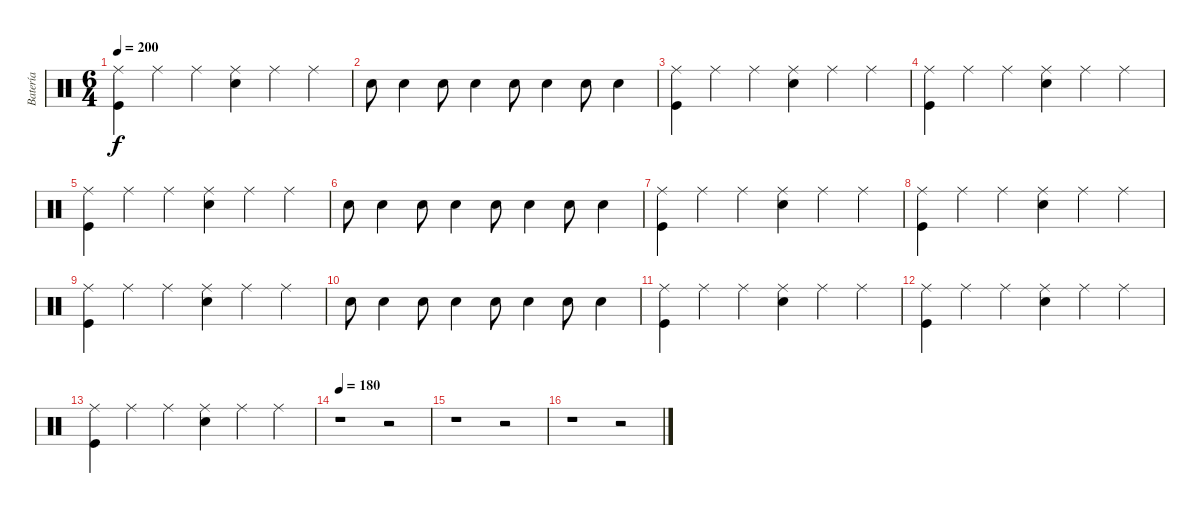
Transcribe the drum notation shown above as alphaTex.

\track ("Batería" "Batería") {instrument percussion}
\staff {score}
\articulation defaults
\ts (6 4)
\tempo 200
\clef neutral
\ks c
("Ride (middle)" "Kick (hit)").4{dy f} "Ride (middle)".4 "Ride (middle)".4 ("Ride (middle)" "Snare (hit) 2").4 "Ride (middle)".4 "Ride (middle)".4 |
"Snare (hit) 2".8 "Snare (hit) 2".4 "Snare (hit) 2".8 "Snare (hit) 2".4 "Snare (hit) 2".8 "Snare (hit) 2".4 "Snare (hit) 2".8 "Snare (hit) 2".4 |
("Ride (middle)" "Kick (hit)").4 "Ride (middle)".4 "Ride (middle)".4 ("Ride (middle)" "Snare (hit) 2").4 "Ride (middle)".4 "Ride (middle)".4 |
("Ride (middle)" "Kick (hit)").4 "Ride (middle)".4 "Ride (middle)".4 ("Ride (middle)" "Snare (hit) 2").4 "Ride (middle)".4 "Ride (middle)".4 |
("Ride (middle)" "Kick (hit)").4 "Ride (middle)".4 "Ride (middle)".4 ("Ride (middle)" "Snare (hit) 2").4 "Ride (middle)".4 "Ride (middle)".4 |
"Snare (hit) 2".8 "Snare (hit) 2".4 "Snare (hit) 2".8 "Snare (hit) 2".4 "Snare (hit) 2".8 "Snare (hit) 2".4 "Snare (hit) 2".8 "Snare (hit) 2".4 |
("Ride (middle)" "Kick (hit)").4 "Ride (middle)".4 "Ride (middle)".4 ("Ride (middle)" "Snare (hit) 2").4 "Ride (middle)".4 "Ride (middle)".4 |
("Ride (middle)" "Kick (hit)").4 "Ride (middle)".4 "Ride (middle)".4 ("Ride (middle)" "Snare (hit) 2").4 "Ride (middle)".4 "Ride (middle)".4 |
("Ride (middle)" "Kick (hit)").4 "Ride (middle)".4 "Ride (middle)".4 ("Ride (middle)" "Snare (hit) 2").4 "Ride (middle)".4 "Ride (middle)".4 |
"Snare (hit) 2".8 "Snare (hit) 2".4 "Snare (hit) 2".8 "Snare (hit) 2".4 "Snare (hit) 2".8 "Snare (hit) 2".4 "Snare (hit) 2".8 "Snare (hit) 2".4 |
("Ride (middle)" "Kick (hit)").4 "Ride (middle)".4 "Ride (middle)".4 ("Ride (middle)" "Snare (hit) 2").4 "Ride (middle)".4 "Ride (middle)".4 |
("Ride (middle)" "Kick (hit)").4 "Ride (middle)".4 "Ride (middle)".4 ("Ride (middle)" "Snare (hit) 2").4 "Ride (middle)".4 "Ride (middle)".4 |
("Ride (middle)" "Kick (hit)").4 "Ride (middle)".4 "Ride (middle)".4 ("Ride (middle)" "Snare (hit) 2").4 "Ride (middle)".4 "Ride (middle)".4 |
\tempo 180
r.1 r.2 |
r.1 r.2 |
r.1 r.2
